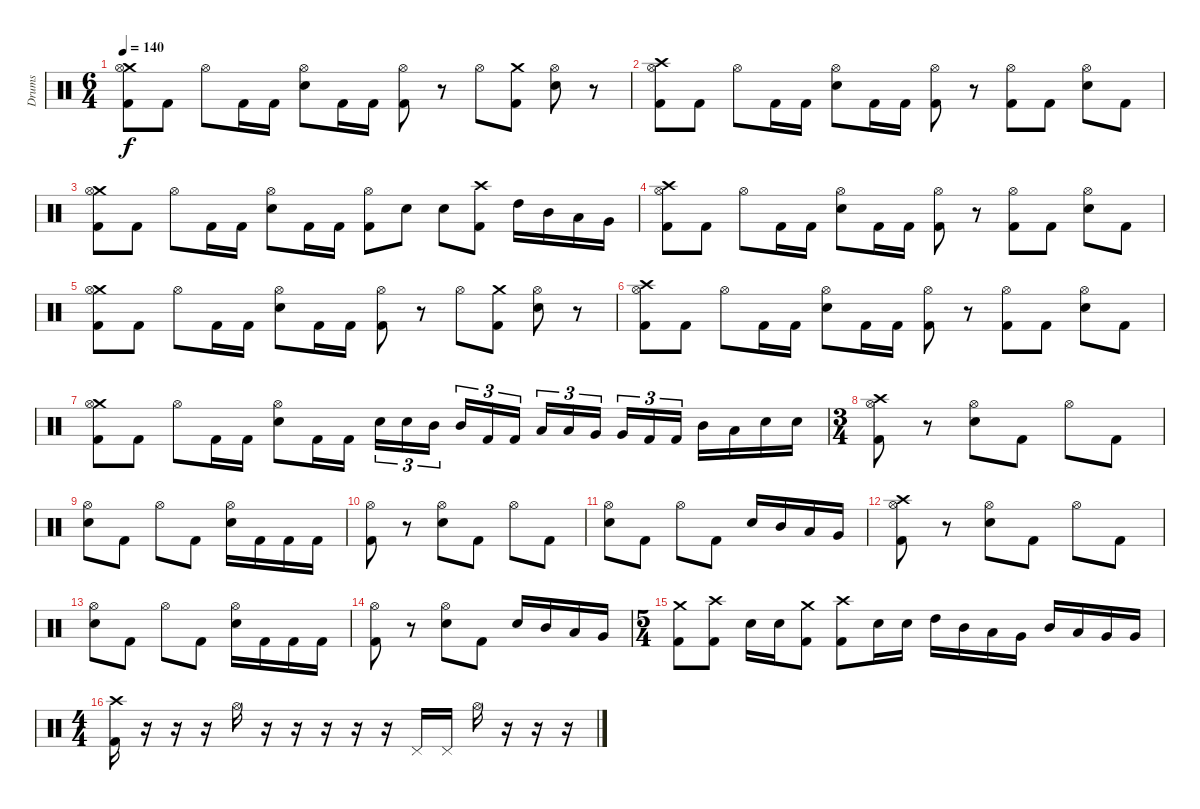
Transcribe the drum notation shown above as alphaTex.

\track ("Drums" "Drums") {instrument percussion}
\staff {score}
\articulation defaults
\ts (6 4)
\tempo 140
\clef neutral
\ks c
("Crash medium (hit)" "Hi-Hat (open)" "Kick (hit) 2").8{dy f} "Kick (hit) 2".8 "Hi-Hat (open)".8 "Kick (hit) 2".16 "Kick (hit) 2".16 ("Hi-Hat (open)" "Electric Snare (hit)").8 "Kick (hit) 2".16 "Kick (hit) 2".16 ("Hi-Hat (open)" "Kick (hit) 2").8 r.8 "Hi-Hat (open)".8 ("Crash medium (hit)" "Kick (hit) 2").8 ("Hi-Hat (open)" "Electric Snare (hit)").8 r.8 |
("Crash high (hit)" "Hi-Hat (open)" "Kick (hit) 2").8 "Kick (hit) 2".8 "Hi-Hat (open)".8 "Kick (hit) 2".16 "Kick (hit) 2".16 ("Hi-Hat (open)" "Electric Snare (hit)").8 "Kick (hit) 2".16 "Kick (hit) 2".16 ("Hi-Hat (open)" "Kick (hit) 2").8 r.8 ("Hi-Hat (open)" "Kick (hit) 2").8 "Kick (hit) 2".8 ("Hi-Hat (open)" "Electric Snare (hit)").8 "Kick (hit) 2".8 |
("Crash medium (hit)" "Hi-Hat (open)" "Kick (hit) 2").8 "Kick (hit) 2".8 "Hi-Hat (open)".8 "Kick (hit) 2".16 "Kick (hit) 2".16 ("Hi-Hat (open)" "Electric Snare (hit)").8 "Kick (hit) 2".16 "Kick (hit) 2".16 ("Hi-Hat (open)" "Kick (hit) 2").8 "Electric Snare (hit)".8 "Electric Snare (hit)".8 ("Crash high (hit)" "Kick (hit) 2").8 "High Tom (hit)".16 "Mid Tom (hit)".16 "Low Tom (hit)".16 "Very Low Tom (hit)".16 |
("Crash high (hit)" "Hi-Hat (open)" "Kick (hit) 2").8 "Kick (hit) 2".8 "Hi-Hat (open)".8 "Kick (hit) 2".16 "Kick (hit) 2".16 ("Hi-Hat (open)" "Electric Snare (hit)").8 "Kick (hit) 2".16 "Kick (hit) 2".16 ("Hi-Hat (open)" "Kick (hit) 2").8 r.8 ("Hi-Hat (open)" "Kick (hit) 2").8 "Kick (hit) 2".8 ("Hi-Hat (open)" "Electric Snare (hit)").8 "Kick (hit) 2".8 |
("Crash medium (hit)" "Hi-Hat (open)" "Kick (hit) 2").8 "Kick (hit) 2".8 "Hi-Hat (open)".8 "Kick (hit) 2".16 "Kick (hit) 2".16 ("Hi-Hat (open)" "Electric Snare (hit)").8 "Kick (hit) 2".16 "Kick (hit) 2".16 ("Hi-Hat (open)" "Kick (hit) 2").8 r.8 "Hi-Hat (open)".8 ("Crash medium (hit)" "Kick (hit) 2").8 ("Hi-Hat (open)" "Electric Snare (hit)").8 r.8 |
("Crash high (hit)" "Hi-Hat (open)" "Kick (hit) 2").8 "Kick (hit) 2".8 "Hi-Hat (open)".8 "Kick (hit) 2".16 "Kick (hit) 2".16 ("Hi-Hat (open)" "Electric Snare (hit)").8 "Kick (hit) 2".16 "Kick (hit) 2".16 ("Hi-Hat (open)" "Kick (hit) 2").8 r.8 ("Hi-Hat (open)" "Kick (hit) 2").8 "Kick (hit) 2".8 ("Hi-Hat (open)" "Electric Snare (hit)").8 "Kick (hit) 2".8 |
("Crash medium (hit)" "Hi-Hat (open)" "Kick (hit) 2").8 "Kick (hit) 2".8 "Hi-Hat (open)".8 "Kick (hit) 2".16 "Kick (hit) 2".16 ("Hi-Hat (open)" "Electric Snare (hit)").8 "Kick (hit) 2".16 "Kick (hit) 2".16 "Electric Snare (hit)".16{tu (3 2)} "Electric Snare (hit)".16{tu (3 2)} "Mid Tom (hit)".16{tu (3 2)} "Mid Tom (hit)".16{tu (3 2)} "Kick (hit) 2".16{tu (3 2)} "Kick (hit) 2".16{tu (3 2)} "Low Tom (hit)".16{tu (3 2)} "Low Tom (hit)".16{tu (3 2)} "Very Low Tom (hit)".16{tu (3 2)} "Very Low Tom (hit)".16{tu (3 2)} "Kick (hit) 2".16{tu (3 2)} "Kick (hit) 2".16{tu (3 2)} "Mid Tom (hit)".16 "Low Tom (hit)".16 "Electric Snare (hit)".16 "Electric Snare (hit)".16 |
\ts (3 4)
("Crash high (hit)" "Hi-Hat (open)" "Kick (hit) 2").8 r.8 ("Hi-Hat (open)" "Electric Snare (hit)").8 "Kick (hit) 2".8 "Hi-Hat (open)".8 "Kick (hit) 2".8 |
("Hi-Hat (open)" "Electric Snare (hit)").8 "Kick (hit) 2".8 "Hi-Hat (open)".8 "Kick (hit) 2".8 ("Hi-Hat (open)" "Electric Snare (hit)").16 "Kick (hit) 2".16 "Kick (hit) 2".16 "Kick (hit) 2".16 |
("Hi-Hat (open)" "Kick (hit) 2").8 r.8 ("Hi-Hat (open)" "Electric Snare (hit)").8 "Kick (hit) 2".8 "Hi-Hat (open)".8 "Kick (hit) 2".8 |
("Hi-Hat (open)" "Electric Snare (hit)").8 "Kick (hit) 2".8 "Hi-Hat (open)".8 "Kick (hit) 2".8 "Electric Snare (hit)".16 "Mid Tom (hit)".16 "Low Tom (hit)".16 "Very Low Tom (hit)".16 |
("Crash high (hit)" "Hi-Hat (open)" "Kick (hit) 2").8 r.8 ("Hi-Hat (open)" "Electric Snare (hit)").8 "Kick (hit) 2".8 "Hi-Hat (open)".8 "Kick (hit) 2".8 |
("Hi-Hat (open)" "Electric Snare (hit)").8 "Kick (hit) 2".8 "Hi-Hat (open)".8 "Kick (hit) 2".8 ("Hi-Hat (open)" "Electric Snare (hit)").16 "Kick (hit) 2".16 "Kick (hit) 2".16 "Kick (hit) 2".16 |
("Hi-Hat (open)" "Kick (hit) 2").8 r.8 ("Hi-Hat (open)" "Electric Snare (hit)").8 "Kick (hit) 2".8 "Electric Snare (hit)".16 "Mid Tom (hit)".16 "Low Tom (hit)".16 "Very Low Tom (hit)".16 |
\ts (5 4)
("Crash medium (hit)" "Kick (hit) 2").8 ("Crash high (hit)" "Kick (hit) 2").8 "Electric Snare (hit)".16 "Electric Snare (hit)".16 ("Crash medium (hit)" "Kick (hit) 2").8 ("Crash high (hit)" "Kick (hit) 2").8 "Electric Snare (hit)".16 "Electric Snare (hit)".16 "High Tom (hit)".16 "Mid Tom (hit)".16 "Low Tom (hit)".16 "Very Low Tom (hit)".16 "Mid Tom (hit)".16 "Low Tom (hit)".16 "Very Low Tom (hit)".16 "Very Low Tom (hit)".16 |
\ts (4 4)
("Crash high (hit)" "Kick (hit) 2").16 r.16 r.16 r.16 "Hi-Hat (open)".16 r.16 r.16 r.16 r.16 r.16 "Pedal Hi-Hat (hit)".16 "Pedal Hi-Hat (hit)".16 "Hi-Hat (open)".16 r.16 r.16 r.16
